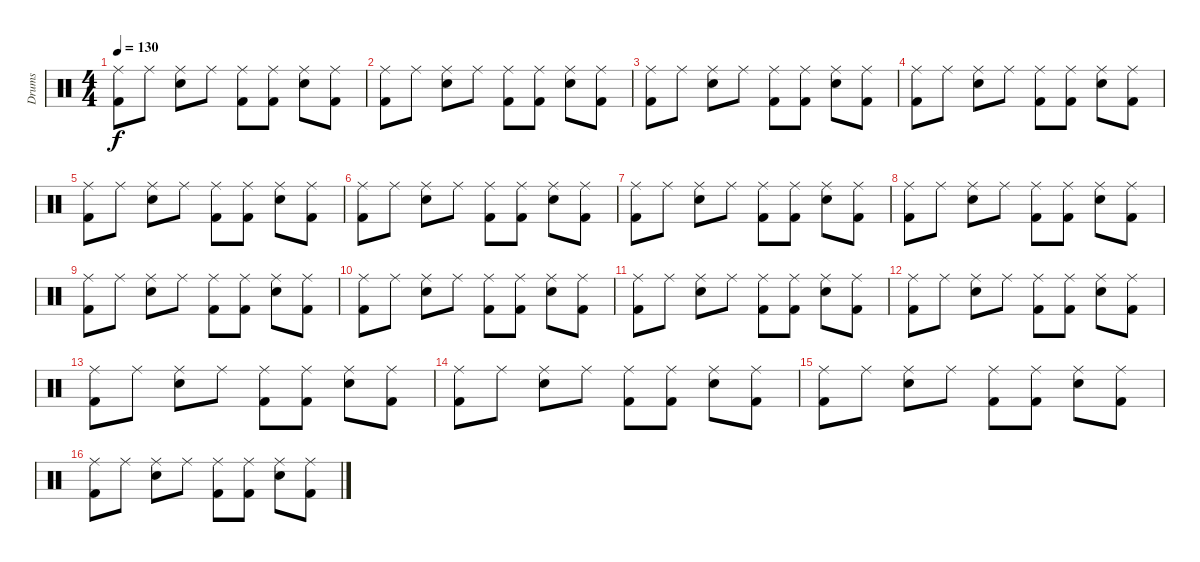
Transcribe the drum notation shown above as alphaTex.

\track ("Drums" "Drums") {instrument percussion}
\staff {score}
\articulation defaults
\ts (4 4)
\tempo 130
\clef neutral
\ks c
("Ride (middle)" "Kick (hit) 2").8{dy f} "Ride (middle)".8 ("Ride (middle)" "Electric Snare (hit)").8 "Ride (middle)".8 ("Ride (middle)" "Kick (hit) 2").8 ("Ride (middle)" "Kick (hit) 2").8 ("Ride (middle)" "Electric Snare (hit)").8 ("Ride (middle)" "Kick (hit) 2").8 |
("Ride (middle)" "Kick (hit) 2").8 "Ride (middle)".8 ("Ride (middle)" "Electric Snare (hit)").8 "Ride (middle)".8 ("Ride (middle)" "Kick (hit) 2").8 ("Ride (middle)" "Kick (hit) 2").8 ("Ride (middle)" "Electric Snare (hit)").8 ("Ride (middle)" "Kick (hit) 2").8 |
("Ride (middle)" "Kick (hit) 2").8 "Ride (middle)".8 ("Ride (middle)" "Electric Snare (hit)").8 "Ride (middle)".8 ("Ride (middle)" "Kick (hit) 2").8 ("Ride (middle)" "Kick (hit) 2").8 ("Ride (middle)" "Electric Snare (hit)").8 ("Ride (middle)" "Kick (hit) 2").8 |
("Ride (middle)" "Kick (hit) 2").8 "Ride (middle)".8 ("Ride (middle)" "Electric Snare (hit)").8 "Ride (middle)".8 ("Ride (middle)" "Kick (hit) 2").8 ("Ride (middle)" "Kick (hit) 2").8 ("Ride (middle)" "Electric Snare (hit)").8 ("Ride (middle)" "Kick (hit) 2").8 |
("Ride (middle)" "Kick (hit) 2").8 "Ride (middle)".8 ("Ride (middle)" "Electric Snare (hit)").8 "Ride (middle)".8 ("Ride (middle)" "Kick (hit) 2").8 ("Ride (middle)" "Kick (hit) 2").8 ("Ride (middle)" "Electric Snare (hit)").8 ("Ride (middle)" "Kick (hit) 2").8 |
("Ride (middle)" "Kick (hit) 2").8 "Ride (middle)".8 ("Ride (middle)" "Electric Snare (hit)").8 "Ride (middle)".8 ("Ride (middle)" "Kick (hit) 2").8 ("Ride (middle)" "Kick (hit) 2").8 ("Ride (middle)" "Electric Snare (hit)").8 ("Ride (middle)" "Kick (hit) 2").8 |
("Ride (middle)" "Kick (hit) 2").8 "Ride (middle)".8 ("Ride (middle)" "Electric Snare (hit)").8 "Ride (middle)".8 ("Ride (middle)" "Kick (hit) 2").8 ("Ride (middle)" "Kick (hit) 2").8 ("Ride (middle)" "Electric Snare (hit)").8 ("Ride (middle)" "Kick (hit) 2").8 |
("Ride (middle)" "Kick (hit) 2").8 "Ride (middle)".8 ("Ride (middle)" "Electric Snare (hit)").8 "Ride (middle)".8 ("Ride (middle)" "Kick (hit) 2").8 ("Ride (middle)" "Kick (hit) 2").8 ("Ride (middle)" "Electric Snare (hit)").8 ("Ride (middle)" "Kick (hit) 2").8 |
("Ride (middle)" "Kick (hit) 2").8 "Ride (middle)".8 ("Ride (middle)" "Electric Snare (hit)").8 "Ride (middle)".8 ("Ride (middle)" "Kick (hit) 2").8 ("Ride (middle)" "Kick (hit) 2").8 ("Ride (middle)" "Electric Snare (hit)").8 ("Ride (middle)" "Kick (hit) 2").8 |
("Ride (middle)" "Kick (hit) 2").8 "Ride (middle)".8 ("Ride (middle)" "Electric Snare (hit)").8 "Ride (middle)".8 ("Ride (middle)" "Kick (hit) 2").8 ("Ride (middle)" "Kick (hit) 2").8 ("Ride (middle)" "Electric Snare (hit)").8 ("Ride (middle)" "Kick (hit) 2").8 |
("Ride (middle)" "Kick (hit) 2").8 "Ride (middle)".8 ("Ride (middle)" "Electric Snare (hit)").8 "Ride (middle)".8 ("Ride (middle)" "Kick (hit) 2").8 ("Ride (middle)" "Kick (hit) 2").8 ("Ride (middle)" "Electric Snare (hit)").8 ("Ride (middle)" "Kick (hit) 2").8 |
("Ride (middle)" "Kick (hit) 2").8 "Ride (middle)".8 ("Ride (middle)" "Electric Snare (hit)").8 "Ride (middle)".8 ("Ride (middle)" "Kick (hit) 2").8 ("Ride (middle)" "Kick (hit) 2").8 ("Ride (middle)" "Electric Snare (hit)").8 ("Ride (middle)" "Kick (hit) 2").8 |
("Ride (middle)" "Kick (hit) 2").8 "Ride (middle)".8 ("Ride (middle)" "Electric Snare (hit)").8 "Ride (middle)".8 ("Ride (middle)" "Kick (hit) 2").8 ("Ride (middle)" "Kick (hit) 2").8 ("Ride (middle)" "Electric Snare (hit)").8 ("Ride (middle)" "Kick (hit) 2").8 |
("Ride (middle)" "Kick (hit) 2").8 "Ride (middle)".8 ("Ride (middle)" "Electric Snare (hit)").8 "Ride (middle)".8 ("Ride (middle)" "Kick (hit) 2").8 ("Ride (middle)" "Kick (hit) 2").8 ("Ride (middle)" "Electric Snare (hit)").8 ("Ride (middle)" "Kick (hit) 2").8 |
("Ride (middle)" "Kick (hit) 2").8 "Ride (middle)".8 ("Ride (middle)" "Electric Snare (hit)").8 "Ride (middle)".8 ("Ride (middle)" "Kick (hit) 2").8 ("Ride (middle)" "Kick (hit) 2").8 ("Ride (middle)" "Electric Snare (hit)").8 ("Ride (middle)" "Kick (hit) 2").8 |
("Ride (middle)" "Kick (hit) 2").8 "Ride (middle)".8 ("Ride (middle)" "Electric Snare (hit)").8 "Ride (middle)".8 ("Ride (middle)" "Kick (hit) 2").8 ("Ride (middle)" "Kick (hit) 2").8 ("Ride (middle)" "Electric Snare (hit)").8 ("Ride (middle)" "Kick (hit) 2").8
